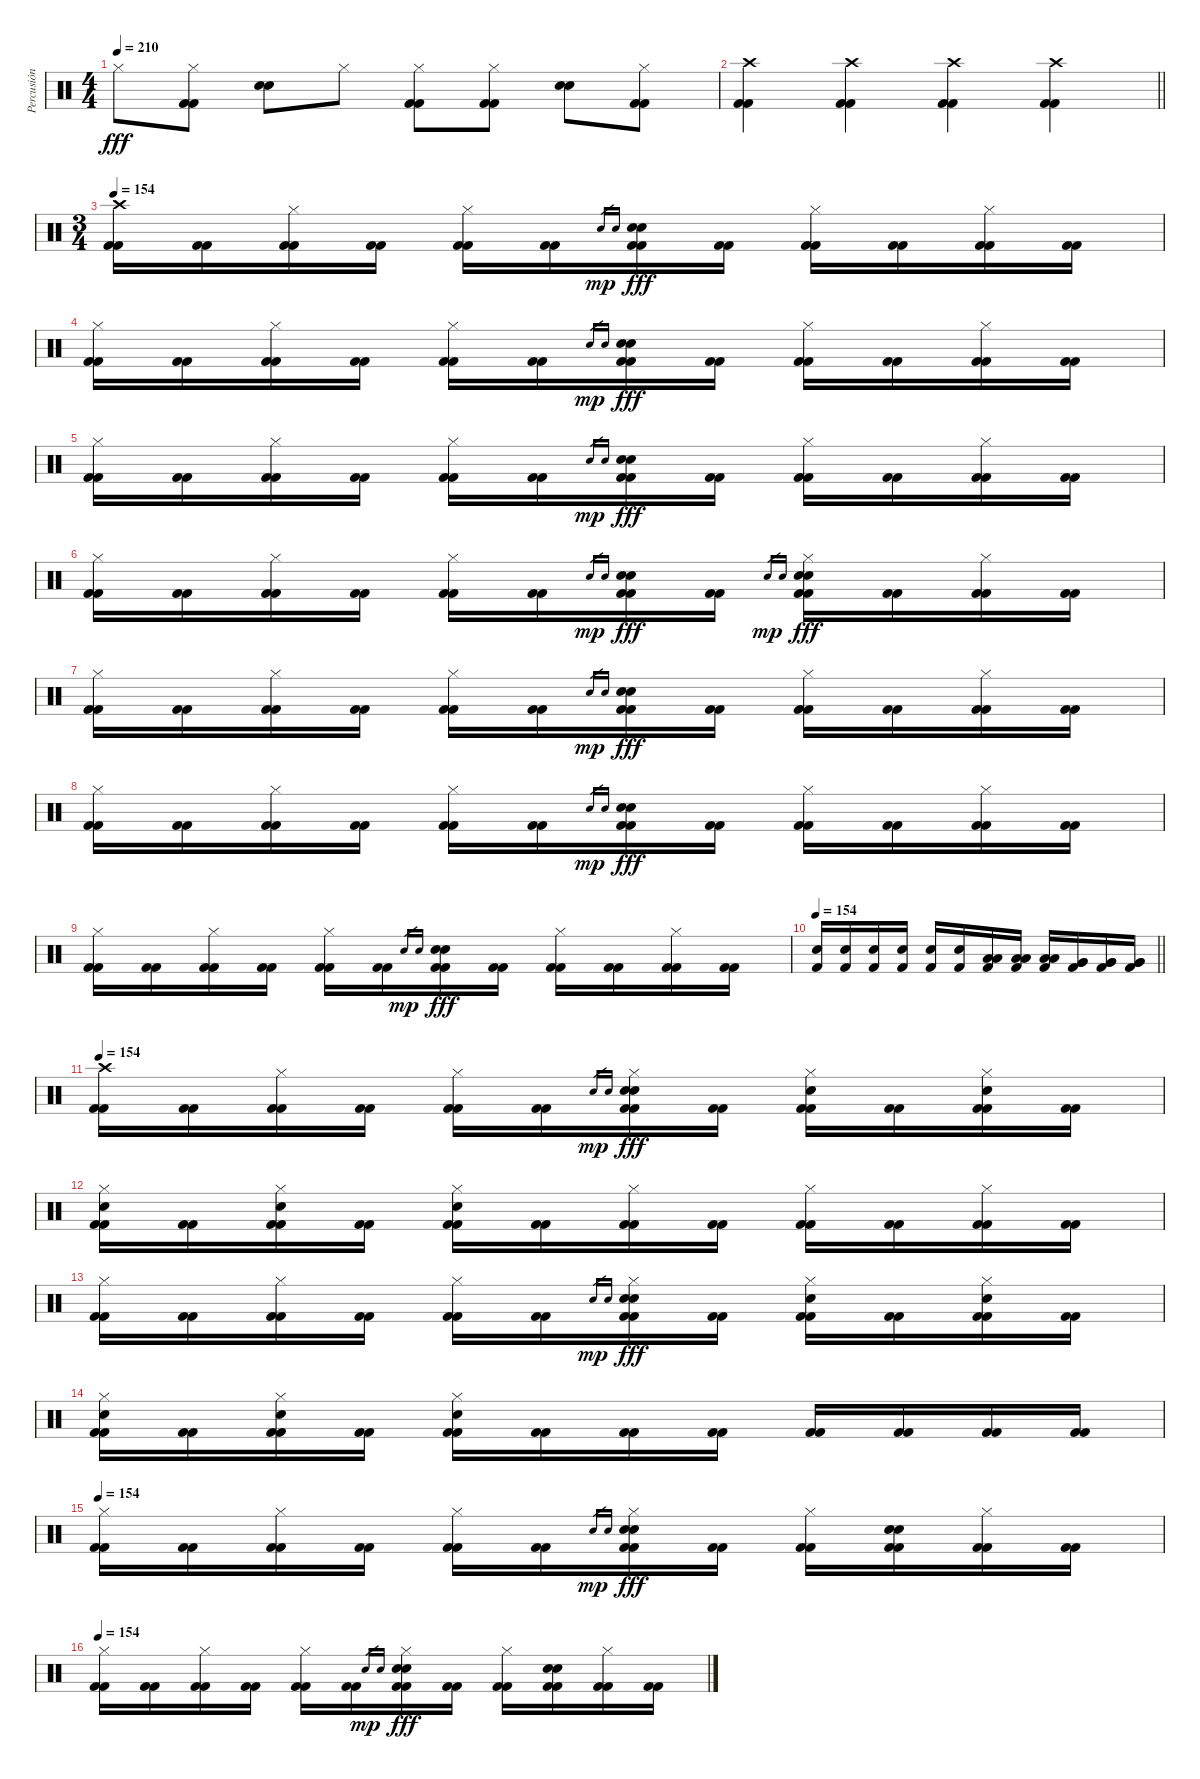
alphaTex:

\track ("Percusión" "Percusión") {instrument percussion}
\staff {score}
\articulation defaults
\ts (4 4)
\tempo 210
\clef neutral
\ks c "Hi-Hat (closed)".8{dy fff}
("Hi-Hat (closed)" "Kick (hit) 2" "Kick (hit) 2").8 ("Electric Snare (hit)" "Snare (hit) 2").8 "Hi-Hat (closed)".8 ("Hi-Hat (closed)" "Kick (hit) 2" "Kick (hit) 2").8 ("Hi-Hat (closed)" "Kick (hit) 2" "Kick (hit) 2").8 ("Electric Snare (hit)" "Snare (hit) 2").8 ("Hi-Hat (closed)" "Kick (hit) 2" "Kick (hit) 2").8 |
\barLineRight lightlight
("Crash high (hit)" "Kick (hit) 2" "Kick (hit) 2").4 ("Crash high (hit)" "Kick (hit) 2" "Kick (hit) 2").4 ("Crash high (hit)" "Kick (hit) 2" "Kick (hit) 2").4 ("Crash high (hit)" "Kick (hit) 2" "Kick (hit) 2").4 |
\ts (3 4)
\tempo 154
("Crash high (hit)" "Kick (hit) 2" "Kick (hit) 2").16 ("Kick (hit) 2" "Kick (hit) 2").16 ("Hi-Hat (closed)" "Kick (hit) 2" "Kick (hit) 2").16 ("Kick (hit) 2" "Kick (hit) 2").16 ("Hi-Hat (closed)" "Kick (hit) 2" "Kick (hit) 2").16 ("Kick (hit) 2" "Kick (hit) 2").16 "Electric Snare (hit)".16{gr dy mp} "Snare (hit) 2".16{gr} ("Electric Snare (hit)" "Snare (hit) 2" "Kick (hit) 2" "Kick (hit) 2").16{dy fff} ("Kick (hit) 2" "Kick (hit) 2").16 ("Hi-Hat (closed)" "Kick (hit) 2" "Kick (hit) 2").16 ("Kick (hit) 2" "Kick (hit) 2").16 ("Hi-Hat (closed)" "Kick (hit) 2" "Kick (hit) 2").16 ("Kick (hit) 2" "Kick (hit) 2").16 |
("Hi-Hat (closed)" "Kick (hit) 2" "Kick (hit) 2").16 ("Kick (hit) 2" "Kick (hit) 2").16 ("Hi-Hat (closed)" "Kick (hit) 2" "Kick (hit) 2").16 ("Kick (hit) 2" "Kick (hit) 2").16 ("Hi-Hat (closed)" "Kick (hit) 2" "Kick (hit) 2").16 ("Kick (hit) 2" "Kick (hit) 2").16 "Electric Snare (hit)".16{gr dy mp} "Snare (hit) 2".16{gr} ("Electric Snare (hit)" "Snare (hit) 2" "Kick (hit) 2" "Kick (hit) 2").16{dy fff} ("Kick (hit) 2" "Kick (hit) 2").16 ("Hi-Hat (closed)" "Kick (hit) 2" "Kick (hit) 2").16 ("Kick (hit) 2" "Kick (hit) 2").16 ("Hi-Hat (closed)" "Kick (hit) 2" "Kick (hit) 2").16 ("Kick (hit) 2" "Kick (hit) 2").16 |
("Hi-Hat (closed)" "Kick (hit) 2" "Kick (hit) 2").16 ("Kick (hit) 2" "Kick (hit) 2").16 ("Hi-Hat (closed)" "Kick (hit) 2" "Kick (hit) 2").16 ("Kick (hit) 2" "Kick (hit) 2").16 ("Hi-Hat (closed)" "Kick (hit) 2" "Kick (hit) 2").16 ("Kick (hit) 2" "Kick (hit) 2").16 "Electric Snare (hit)".16{gr dy mp} "Snare (hit) 2".16{gr} ("Electric Snare (hit)" "Snare (hit) 2" "Kick (hit) 2" "Kick (hit) 2").16{dy fff} ("Kick (hit) 2" "Kick (hit) 2").16 ("Hi-Hat (closed)" "Kick (hit) 2" "Kick (hit) 2").16 ("Kick (hit) 2" "Kick (hit) 2").16 ("Hi-Hat (closed)" "Kick (hit) 2" "Kick (hit) 2").16 ("Kick (hit) 2" "Kick (hit) 2").16 |
("Hi-Hat (closed)" "Kick (hit) 2" "Kick (hit) 2").16 ("Kick (hit) 2" "Kick (hit) 2").16 ("Hi-Hat (closed)" "Kick (hit) 2" "Kick (hit) 2").16 ("Kick (hit) 2" "Kick (hit) 2").16 ("Hi-Hat (closed)" "Kick (hit) 2" "Kick (hit) 2").16 ("Kick (hit) 2" "Kick (hit) 2").16 "Electric Snare (hit)".16{gr dy mp} "Snare (hit) 2".16{gr} ("Electric Snare (hit)" "Snare (hit) 2" "Kick (hit) 2" "Kick (hit) 2").16{dy fff} ("Kick (hit) 2" "Kick (hit) 2").16 "Electric Snare (hit)".16{gr dy mp} "Snare (hit) 2".16{gr} ("Hi-Hat (closed)" "Electric Snare (hit)" "Snare (hit) 2" "Kick (hit) 2" "Kick (hit) 2").16{dy fff} ("Kick (hit) 2" "Kick (hit) 2").16 ("Hi-Hat (closed)" "Kick (hit) 2" "Kick (hit) 2").16 ("Kick (hit) 2" "Kick (hit) 2").16 |
("Hi-Hat (closed)" "Kick (hit) 2" "Kick (hit) 2").16 ("Kick (hit) 2" "Kick (hit) 2").16 ("Hi-Hat (closed)" "Kick (hit) 2" "Kick (hit) 2").16 ("Kick (hit) 2" "Kick (hit) 2").16 ("Hi-Hat (closed)" "Kick (hit) 2" "Kick (hit) 2").16 ("Kick (hit) 2" "Kick (hit) 2").16 "Electric Snare (hit)".16{gr dy mp} "Snare (hit) 2".16{gr} ("Electric Snare (hit)" "Snare (hit) 2" "Kick (hit) 2" "Kick (hit) 2").16{dy fff} ("Kick (hit) 2" "Kick (hit) 2").16 ("Hi-Hat (closed)" "Kick (hit) 2" "Kick (hit) 2").16 ("Kick (hit) 2" "Kick (hit) 2").16 ("Hi-Hat (closed)" "Kick (hit) 2" "Kick (hit) 2").16 ("Kick (hit) 2" "Kick (hit) 2").16 |
("Hi-Hat (closed)" "Kick (hit) 2" "Kick (hit) 2").16 ("Kick (hit) 2" "Kick (hit) 2").16 ("Hi-Hat (closed)" "Kick (hit) 2" "Kick (hit) 2").16 ("Kick (hit) 2" "Kick (hit) 2").16 ("Hi-Hat (closed)" "Kick (hit) 2" "Kick (hit) 2").16 ("Kick (hit) 2" "Kick (hit) 2").16 "Electric Snare (hit)".16{gr dy mp} "Snare (hit) 2".16{gr} ("Electric Snare (hit)" "Snare (hit) 2" "Kick (hit) 2" "Kick (hit) 2").16{dy fff} ("Kick (hit) 2" "Kick (hit) 2").16 ("Hi-Hat (closed)" "Kick (hit) 2" "Kick (hit) 2").16 ("Kick (hit) 2" "Kick (hit) 2").16 ("Hi-Hat (closed)" "Kick (hit) 2" "Kick (hit) 2").16 ("Kick (hit) 2" "Kick (hit) 2").16 |
("Hi-Hat (closed)" "Kick (hit) 2" "Kick (hit) 2").16 ("Kick (hit) 2" "Kick (hit) 2").16 ("Hi-Hat (closed)" "Kick (hit) 2" "Kick (hit) 2").16 ("Kick (hit) 2" "Kick (hit) 2").16 ("Hi-Hat (closed)" "Kick (hit) 2" "Kick (hit) 2").16 ("Kick (hit) 2" "Kick (hit) 2").16 "Electric Snare (hit)".16{gr dy mp} "Snare (hit) 2".16{gr} ("Electric Snare (hit)" "Snare (hit) 2" "Kick (hit) 2" "Kick (hit) 2").16{dy fff} ("Kick (hit) 2" "Kick (hit) 2").16 ("Hi-Hat (closed)" "Kick (hit) 2" "Kick (hit) 2").16 ("Kick (hit) 2" "Kick (hit) 2").16 ("Hi-Hat (closed)" "Kick (hit) 2" "Kick (hit) 2").16 ("Kick (hit) 2" "Kick (hit) 2").16 |
\tempo 154
\barLineRight lightlight
("Snare (hit) 2" "Kick (hit) 2").16 ("Snare (hit) 2" "Kick (hit) 2").16 ("Snare (hit) 2" "Kick (hit) 2").16 ("Snare (hit) 2" "Kick (hit) 2").16 ("Snare (hit) 2" "Kick (hit) 2").16 ("Snare (hit) 2" "Kick (hit) 2").16 ("Low Tom (hit)" "Low Tom (hit)" "Kick (hit) 2").16 ("Low Tom (hit)" "Low Tom (hit)" "Kick (hit) 2").16 ("Low Tom (hit)" "Low Tom (hit)" "Kick (hit) 2").16 ("Very Low Tom (hit)" "Very Low Tom (hit)" "Kick (hit) 2").16 ("Very Low Tom (hit)" "Very Low Tom (hit)" "Kick (hit) 2").16 ("Very Low Tom (hit)" "Very Low Tom (hit)" "Kick (hit) 2").16 |
\tempo 154
("Crash high (hit)" "Kick (hit) 2" "Kick (hit) 2").16 ("Kick (hit) 2" "Kick (hit) 2").16 ("Hi-Hat (closed)" "Kick (hit) 2" "Kick (hit) 2").16 ("Kick (hit) 2" "Kick (hit) 2").16 ("Hi-Hat (closed)" "Kick (hit) 2" "Kick (hit) 2").16 ("Kick (hit) 2" "Kick (hit) 2").16 "Electric Snare (hit)".16{gr dy mp} "Snare (hit) 2".16{gr} ("Hi-Hat (closed)" "Electric Snare (hit)" "Snare (hit) 2" "Kick (hit) 2" "Kick (hit) 2").16{dy fff} ("Kick (hit) 2" "Kick (hit) 2").16 ("Hi-Hat (closed)" "Electric Snare (hit)" "Kick (hit) 2" "Kick (hit) 2").16 ("Kick (hit) 2" "Kick (hit) 2").16 ("Hi-Hat (closed)" "Electric Snare (hit)" "Kick (hit) 2" "Kick (hit) 2").16 ("Kick (hit) 2" "Kick (hit) 2").16 |
("Hi-Hat (closed)" "Electric Snare (hit)" "Kick (hit) 2" "Kick (hit) 2").16 ("Kick (hit) 2" "Kick (hit) 2").16 ("Hi-Hat (closed)" "Electric Snare (hit)" "Kick (hit) 2" "Kick (hit) 2").16 ("Kick (hit) 2" "Kick (hit) 2").16 ("Hi-Hat (closed)" "Electric Snare (hit)" "Kick (hit) 2" "Kick (hit) 2").16 ("Kick (hit) 2" "Kick (hit) 2").16 ("Hi-Hat (closed)" "Kick (hit) 2" "Kick (hit) 2").16 ("Kick (hit) 2" "Kick (hit) 2").16 ("Hi-Hat (closed)" "Kick (hit) 2" "Kick (hit) 2").16 ("Kick (hit) 2" "Kick (hit) 2").16 ("Hi-Hat (closed)" "Kick (hit) 2" "Kick (hit) 2").16 ("Kick (hit) 2" "Kick (hit) 2").16 |
("Hi-Hat (closed)" "Kick (hit) 2" "Kick (hit) 2").16 ("Kick (hit) 2" "Kick (hit) 2").16 ("Hi-Hat (closed)" "Kick (hit) 2" "Kick (hit) 2").16 ("Kick (hit) 2" "Kick (hit) 2").16 ("Hi-Hat (closed)" "Kick (hit) 2" "Kick (hit) 2").16 ("Kick (hit) 2" "Kick (hit) 2").16 "Electric Snare (hit)".16{gr dy mp} "Snare (hit) 2".16{gr} ("Hi-Hat (closed)" "Electric Snare (hit)" "Snare (hit) 2" "Kick (hit) 2" "Kick (hit) 2").16{dy fff} ("Kick (hit) 2" "Kick (hit) 2").16 ("Hi-Hat (closed)" "Electric Snare (hit)" "Kick (hit) 2" "Kick (hit) 2").16 ("Kick (hit) 2" "Kick (hit) 2").16 ("Hi-Hat (closed)" "Electric Snare (hit)" "Kick (hit) 2" "Kick (hit) 2").16 ("Kick (hit) 2" "Kick (hit) 2").16 |
("Hi-Hat (closed)" "Electric Snare (hit)" "Kick (hit) 2" "Kick (hit) 2").16 ("Kick (hit) 2" "Kick (hit) 2").16 ("Hi-Hat (closed)" "Electric Snare (hit)" "Kick (hit) 2" "Kick (hit) 2").16 ("Kick (hit) 2" "Kick (hit) 2").16 ("Hi-Hat (closed)" "Electric Snare (hit)" "Kick (hit) 2" "Kick (hit) 2").16 ("Kick (hit) 2" "Kick (hit) 2").16 ("Kick (hit) 2" "Kick (hit) 2").16 ("Kick (hit) 2" "Kick (hit) 2").16 ("Kick (hit) 2" "Kick (hit) 2").16 ("Kick (hit) 2" "Kick (hit) 2").16 ("Kick (hit) 2" "Kick (hit) 2").16 ("Kick (hit) 2" "Kick (hit) 2").16 |
\tempo 154
("Hi-Hat (closed)" "Kick (hit) 2" "Kick (hit) 2").16 ("Kick (hit) 2" "Kick (hit) 2").16 ("Hi-Hat (closed)" "Kick (hit) 2" "Kick (hit) 2").16 ("Kick (hit) 2" "Kick (hit) 2").16 ("Hi-Hat (closed)" "Kick (hit) 2" "Kick (hit) 2").16 ("Kick (hit) 2" "Kick (hit) 2").16 "Electric Snare (hit)".16{gr dy mp} "Snare (hit) 2".16{gr} ("Hi-Hat (closed)" "Electric Snare (hit)" "Snare (hit) 2" "Kick (hit) 2" "Kick (hit) 2").16{dy fff} ("Kick (hit) 2" "Kick (hit) 2").16 ("Hi-Hat (closed)" "Kick (hit) 2" "Kick (hit) 2").16 ("Electric Snare (hit)" "Snare (hit) 2" "Kick (hit) 2" "Kick (hit) 2").16 ("Hi-Hat (closed)" "Kick (hit) 2" "Kick (hit) 2").16 ("Kick (hit) 2" "Kick (hit) 2").16 |
\tempo 154
("Hi-Hat (closed)" "Kick (hit) 2" "Kick (hit) 2").16 ("Kick (hit) 2" "Kick (hit) 2").16 ("Hi-Hat (closed)" "Kick (hit) 2" "Kick (hit) 2").16 ("Kick (hit) 2" "Kick (hit) 2").16 ("Hi-Hat (closed)" "Kick (hit) 2" "Kick (hit) 2").16 ("Kick (hit) 2" "Kick (hit) 2").16 "Electric Snare (hit)".16{gr dy mp} "Snare (hit) 2".16{gr} ("Hi-Hat (closed)" "Electric Snare (hit)" "Snare (hit) 2" "Kick (hit) 2" "Kick (hit) 2").16{dy fff} ("Kick (hit) 2" "Kick (hit) 2").16 ("Hi-Hat (closed)" "Kick (hit) 2" "Kick (hit) 2").16 ("Electric Snare (hit)" "Snare (hit) 2" "Kick (hit) 2" "Kick (hit) 2").16 ("Hi-Hat (closed)" "Kick (hit) 2" "Kick (hit) 2").16 ("Kick (hit) 2" "Kick (hit) 2").16
